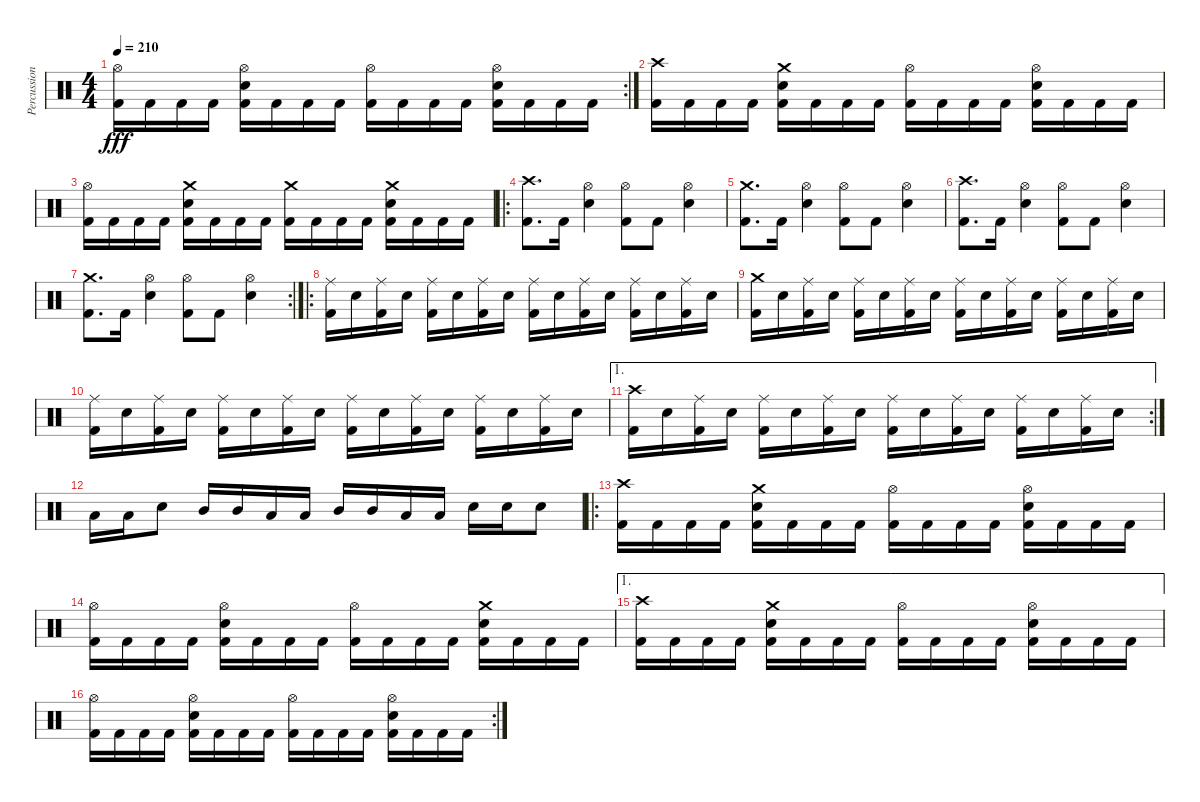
\track ("Percussion" "Percussion") {instrument percussion}
\staff
\articulation defaults
\rc 2
\ts (4 4)
\tempo 210
\clef neutral
\ks c
("Hi-Hat (open)" "Kick (hit) 2").16{dy fff} "Kick (hit) 2".16 "Kick (hit) 2".16 "Kick (hit) 2".16 ("Hi-Hat (open)" "Electric Snare (hit)" "Kick (hit) 2").16 "Kick (hit) 2".16 "Kick (hit) 2".16 "Kick (hit) 2".16 ("Hi-Hat (open)" "Kick (hit) 2").16 "Kick (hit) 2".16 "Kick (hit) 2".16 "Kick (hit) 2".16 ("Hi-Hat (open)" "Electric Snare (hit)" "Kick (hit) 2").16 "Kick (hit) 2".16 "Kick (hit) 2".16 "Kick (hit) 2".16 |
("Crash high (hit)" "Kick (hit) 2").16 "Kick (hit) 2".16 "Kick (hit) 2".16 "Kick (hit) 2".16 ("Crash medium (hit)" "Electric Snare (hit)" "Kick (hit) 2").16 "Kick (hit) 2".16 "Kick (hit) 2".16 "Kick (hit) 2".16 ("Hi-Hat (open)" "Kick (hit) 2").16 "Kick (hit) 2".16 "Kick (hit) 2".16 "Kick (hit) 2".16 ("Hi-Hat (open)" "Electric Snare (hit)" "Kick (hit) 2").16 "Kick (hit) 2".16 "Kick (hit) 2".16 "Kick (hit) 2".16 |
("Hi-Hat (open)" "Kick (hit) 2").16 "Kick (hit) 2".16 "Kick (hit) 2".16 "Kick (hit) 2".16 ("Crash medium (hit)" "Electric Snare (hit)" "Kick (hit) 2").16 "Kick (hit) 2".16 "Kick (hit) 2".16 "Kick (hit) 2".16 ("Crash medium (hit)" "Kick (hit) 2").16 "Kick (hit) 2".16 "Kick (hit) 2".16 "Kick (hit) 2".16 ("Crash medium (hit)" "Electric Snare (hit)" "Kick (hit) 2").16 "Kick (hit) 2".16 "Kick (hit) 2".16 "Kick (hit) 2".16 |
\ro
("Crash high (hit)" "Kick (hit) 2").8{d} "Kick (hit) 2".16 ("Hi-Hat (open)" "Electric Snare (hit)").4 ("Hi-Hat (open)" "Kick (hit) 2").8 "Kick (hit) 2".8 ("Hi-Hat (open)" "Electric Snare (hit)").4 |
("Crash medium (hit)" "Kick (hit) 2").8{d} "Kick (hit) 2".16 ("Hi-Hat (open)" "Electric Snare (hit)").4 ("Hi-Hat (open)" "Kick (hit) 2").8 "Kick (hit) 2".8 ("Hi-Hat (open)" "Electric Snare (hit)").4 |
("Crash high (hit)" "Kick (hit) 2").8{d} "Kick (hit) 2".16 ("Hi-Hat (open)" "Electric Snare (hit)").4 ("Hi-Hat (open)" "Kick (hit) 2").8 "Kick (hit) 2".8 ("Hi-Hat (open)" "Electric Snare (hit)").4 |
\rc 2
("Crash medium (hit)" "Kick (hit) 2").8{d} "Kick (hit) 2".16 ("Hi-Hat (open)" "Electric Snare (hit)").4 ("Hi-Hat (open)" "Kick (hit) 2").8 "Kick (hit) 2".8 ("Hi-Hat (open)" "Electric Snare (hit)").4 |
\ro
("Ride (middle)" "Kick (hit) 2").16 "Electric Snare (hit)".16 ("Ride (middle)" "Kick (hit) 2").16 "Electric Snare (hit)".16 ("Ride (middle)" "Kick (hit) 2").16 "Electric Snare (hit)".16 ("Ride (middle)" "Kick (hit) 2").16 "Electric Snare (hit)".16 ("Ride (middle)" "Kick (hit) 2").16 "Electric Snare (hit)".16 ("Ride (middle)" "Kick (hit) 2").16 "Electric Snare (hit)".16 ("Ride (middle)" "Kick (hit) 2").16 "Electric Snare (hit)".16 ("Ride (middle)" "Kick (hit) 2").16 "Electric Snare (hit)".16 |
("Crash medium (hit)" "Kick (hit) 2").16 "Electric Snare (hit)".16 ("Ride (middle)" "Kick (hit) 2").16 "Electric Snare (hit)".16 ("Ride (middle)" "Kick (hit) 2").16 "Electric Snare (hit)".16 ("Ride (middle)" "Kick (hit) 2").16 "Electric Snare (hit)".16 ("Ride (middle)" "Kick (hit) 2").16 "Electric Snare (hit)".16 ("Ride (middle)" "Kick (hit) 2").16 "Electric Snare (hit)".16 ("Ride (middle)" "Kick (hit) 2").16 "Electric Snare (hit)".16 ("Ride (middle)" "Kick (hit) 2").16 "Electric Snare (hit)".16 |
("Ride (middle)" "Kick (hit) 2").16 "Electric Snare (hit)".16 ("Ride (middle)" "Kick (hit) 2").16 "Electric Snare (hit)".16 ("Ride (middle)" "Kick (hit) 2").16 "Electric Snare (hit)".16 ("Ride (middle)" "Kick (hit) 2").16 "Electric Snare (hit)".16 ("Ride (middle)" "Kick (hit) 2").16 "Electric Snare (hit)".16 ("Ride (middle)" "Kick (hit) 2").16 "Electric Snare (hit)".16 ("Ride (middle)" "Kick (hit) 2").16 "Electric Snare (hit)".16 ("Ride (middle)" "Kick (hit) 2").16 "Electric Snare (hit)".16 |
\ae 1
\rc 2
("Crash high (hit)" "Kick (hit) 2").16 "Electric Snare (hit)".16 ("Ride (middle)" "Kick (hit) 2").16 "Electric Snare (hit)".16 ("Ride (middle)" "Kick (hit) 2").16 "Electric Snare (hit)".16 ("Ride (middle)" "Kick (hit) 2").16 "Electric Snare (hit)".16 ("Ride (middle)" "Kick (hit) 2").16 "Electric Snare (hit)".16 ("Ride (middle)" "Kick (hit) 2").16 "Electric Snare (hit)".16 ("Ride (middle)" "Kick (hit) 2").16 "Electric Snare (hit)".16 ("Ride (middle)" "Kick (hit) 2").16 "Electric Snare (hit)".16 |
"Low Tom (hit)".16 "Low Tom (hit)".16 "Electric Snare (hit)".8 "Mid Tom (hit)".16 "Mid Tom (hit)".16 "Low Tom (hit)".16 "Low Tom (hit)".16 "Mid Tom (hit)".16 "Mid Tom (hit)".16 "Low Tom (hit)".16 "Low Tom (hit)".16 "Electric Snare (hit)".16 "Electric Snare (hit)".16 "Electric Snare (hit)".8 |
\ro
("Crash high (hit)" "Kick (hit) 2").16 "Kick (hit) 2".16 "Kick (hit) 2".16 "Kick (hit) 2".16 ("Crash medium (hit)" "Electric Snare (hit)" "Kick (hit) 2").16 "Kick (hit) 2".16 "Kick (hit) 2".16 "Kick (hit) 2".16 ("Hi-Hat (open)" "Kick (hit) 2").16 "Kick (hit) 2".16 "Kick (hit) 2".16 "Kick (hit) 2".16 ("Hi-Hat (open)" "Electric Snare (hit)" "Kick (hit) 2").16 "Kick (hit) 2".16 "Kick (hit) 2".16 "Kick (hit) 2".16 |
("Hi-Hat (open)" "Kick (hit) 2").16 "Kick (hit) 2".16 "Kick (hit) 2".16 "Kick (hit) 2".16 ("Hi-Hat (open)" "Electric Snare (hit)" "Kick (hit) 2").16 "Kick (hit) 2".16 "Kick (hit) 2".16 "Kick (hit) 2".16 ("Hi-Hat (open)" "Kick (hit) 2").16 "Kick (hit) 2".16 "Kick (hit) 2".16 "Kick (hit) 2".16 ("Crash medium (hit)" "Electric Snare (hit)" "Kick (hit) 2").16 "Kick (hit) 2".16 "Kick (hit) 2".16 "Kick (hit) 2".16 |
\ae 1
("Crash high (hit)" "Kick (hit) 2").16 "Kick (hit) 2".16 "Kick (hit) 2".16 "Kick (hit) 2".16 ("Crash medium (hit)" "Electric Snare (hit)" "Kick (hit) 2").16 "Kick (hit) 2".16 "Kick (hit) 2".16 "Kick (hit) 2".16 ("Hi-Hat (open)" "Kick (hit) 2").16 "Kick (hit) 2".16 "Kick (hit) 2".16 "Kick (hit) 2".16 ("Hi-Hat (open)" "Electric Snare (hit)" "Kick (hit) 2").16 "Kick (hit) 2".16 "Kick (hit) 2".16 "Kick (hit) 2".16 |
\rc 2
("Hi-Hat (open)" "Kick (hit) 2").16 "Kick (hit) 2".16 "Kick (hit) 2".16 "Kick (hit) 2".16 ("Hi-Hat (open)" "Electric Snare (hit)" "Kick (hit) 2").16 "Kick (hit) 2".16 "Kick (hit) 2".16 "Kick (hit) 2".16 ("Hi-Hat (open)" "Kick (hit) 2").16 "Kick (hit) 2".16 "Kick (hit) 2".16 "Kick (hit) 2".16 ("Hi-Hat (open)" "Electric Snare (hit)" "Kick (hit) 2").16 "Kick (hit) 2".16 "Kick (hit) 2".16 "Kick (hit) 2".16
